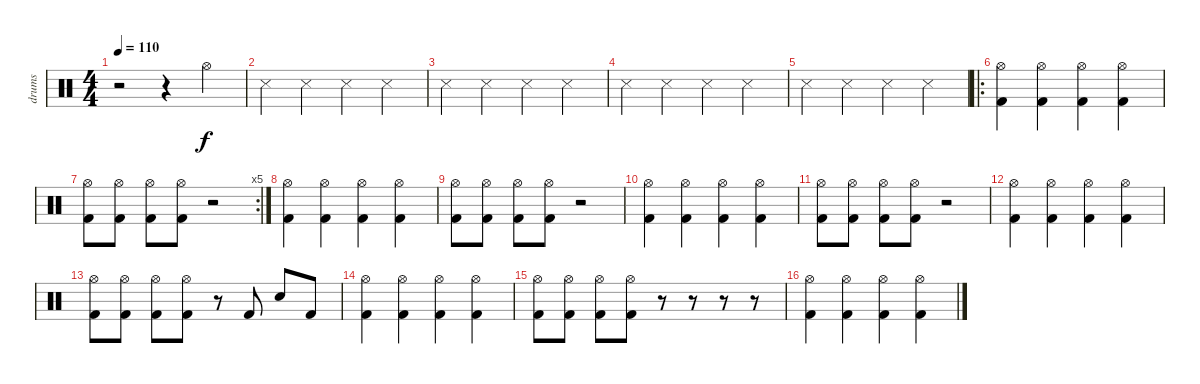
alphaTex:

\track ("drums" "drums") {instrument percussion}
\staff {score}
\articulation defaults
\ts (4 4)
\tempo 110
\clef neutral
\ks c
r.2{dy f} r.4 "Hi-Hat (open)".4 |
"Metronome (hit)".4 "Metronome (hit)".4 "Metronome (hit)".4 "Metronome (hit)".4 |
"Metronome (hit)".4 "Metronome (hit)".4 "Metronome (hit)".4 "Metronome (hit)".4 |
"Metronome (hit)".4 "Metronome (hit)".4 "Metronome (hit)".4 "Metronome (hit)".4 |
"Metronome (hit)".4 "Metronome (hit)".4 "Metronome (hit)".4 "Metronome (hit)".4 |
\ro
("Kick (hit) 2" "Hi-Hat (open)").4 ("Kick (hit) 2" "Hi-Hat (open)").4 ("Kick (hit) 2" "Hi-Hat (open)").4 ("Kick (hit) 2" "Hi-Hat (open)").4 |
\rc 5
("Kick (hit) 2" "Hi-Hat (open)").8 ("Kick (hit) 2" "Hi-Hat (open)").8 ("Kick (hit) 2" "Hi-Hat (open)").8 ("Kick (hit) 2" "Hi-Hat (open)").8 r.2 |
("Kick (hit) 2" "Hi-Hat (open)").4 ("Kick (hit) 2" "Hi-Hat (open)").4 ("Kick (hit) 2" "Hi-Hat (open)").4 ("Kick (hit) 2" "Hi-Hat (open)").4 |
("Kick (hit) 2" "Hi-Hat (open)").8 ("Kick (hit) 2" "Hi-Hat (open)").8 ("Kick (hit) 2" "Hi-Hat (open)").8 ("Kick (hit) 2" "Hi-Hat (open)").8 r.2 |
("Kick (hit) 2" "Hi-Hat (open)").4 ("Kick (hit) 2" "Hi-Hat (open)").4 ("Kick (hit) 2" "Hi-Hat (open)").4 ("Kick (hit) 2" "Hi-Hat (open)").4 |
("Kick (hit) 2" "Hi-Hat (open)").8 ("Kick (hit) 2" "Hi-Hat (open)").8 ("Kick (hit) 2" "Hi-Hat (open)").8 ("Kick (hit) 2" "Hi-Hat (open)").8 r.2 |
("Kick (hit) 2" "Hi-Hat (open)").4 ("Kick (hit) 2" "Hi-Hat (open)").4 ("Kick (hit) 2" "Hi-Hat (open)").4 ("Kick (hit) 2" "Hi-Hat (open)").4 |
("Kick (hit) 2" "Hi-Hat (open)").8 ("Kick (hit) 2" "Hi-Hat (open)").8 ("Kick (hit) 2" "Hi-Hat (open)").8 ("Kick (hit) 2" "Hi-Hat (open)").8 r.8 "Kick (hit) 2".8 "Snare (hit) 2".8 "Kick (hit) 2".8 |
("Kick (hit) 2" "Hi-Hat (open)").4 ("Kick (hit) 2" "Hi-Hat (open)").4 ("Kick (hit) 2" "Hi-Hat (open)").4 ("Kick (hit) 2" "Hi-Hat (open)").4 |
("Kick (hit) 2" "Hi-Hat (open)").8 ("Kick (hit) 2" "Hi-Hat (open)").8 ("Kick (hit) 2" "Hi-Hat (open)").8 ("Kick (hit) 2" "Hi-Hat (open)").8 r.8 r.8 r.8 r.8 |
("Kick (hit) 2" "Hi-Hat (open)").4 ("Kick (hit) 2" "Hi-Hat (open)").4 ("Kick (hit) 2" "Hi-Hat (open)").4 ("Kick (hit) 2" "Hi-Hat (open)").4
